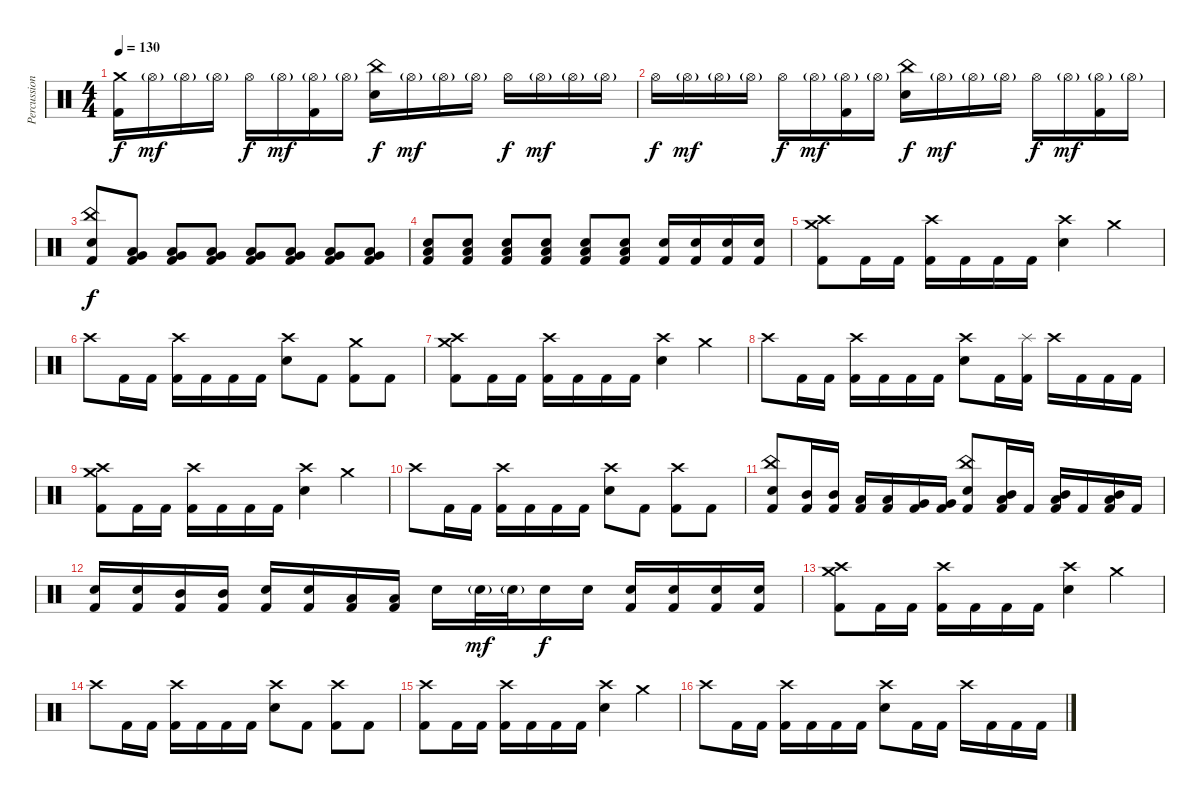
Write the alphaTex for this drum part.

\track ("Percussion" "Percussion") {instrument percussion}
\staff {score}
\articulation defaults
\ts (4 4)
\tempo 130
\clef neutral
\ks c
("Crash medium (hit)" "Kick (hit) 2").16{dy f} "Hi-Hat (open)"{g}.16{dy mf} "Hi-Hat (open)"{g}.16 "Hi-Hat (open)"{g}.16 "Hi-Hat (open)".16{dy f} "Hi-Hat (open)"{g}.16{dy mf} ("Hi-Hat (open)"{g} "Kick (hit) 2").16 "Hi-Hat (open)"{g}.16 ("China (hit)" "Electric Snare (hit)").16{dy f} "Hi-Hat (open)"{g}.16{dy mf} "Hi-Hat (open)"{g}.16 "Hi-Hat (open)"{g}.16 "Hi-Hat (open)".16{dy f} "Hi-Hat (open)"{g}.16{dy mf} "Hi-Hat (open)"{g}.16 "Hi-Hat (open)"{g}.16 |
"Hi-Hat (open)".16{dy f} "Hi-Hat (open)"{g}.16{dy mf} "Hi-Hat (open)"{g}.16 "Hi-Hat (open)"{g}.16 "Hi-Hat (open)".16{dy f} "Hi-Hat (open)"{g}.16{dy mf} ("Hi-Hat (open)"{g} "Kick (hit) 2").16 "Hi-Hat (open)"{g}.16 ("China (hit)" "Electric Snare (hit)").16{dy f} "Hi-Hat (open)"{g}.16{dy mf} "Hi-Hat (open)"{g}.16 "Hi-Hat (open)"{g}.16 "Hi-Hat (open)".16{dy f} "Hi-Hat (open)"{g}.16{dy mf} ("Hi-Hat (open)"{g} "Kick (hit) 2").16 "Hi-Hat (open)"{g}.16 |
("China (hit)" "Electric Snare (hit)" "Kick (hit) 2").8{dy f} ("Very Low Tom (hit)" "Low Floor Tom (hit)" "Kick (hit) 2").8 ("Very Low Tom (hit)" "Low Floor Tom (hit)" "Kick (hit) 2").8 ("Very Low Tom (hit)" "Low Floor Tom (hit)" "Kick (hit) 2").8 ("Very Low Tom (hit)" "Low Floor Tom (hit)" "Kick (hit) 2").8 ("Very Low Tom (hit)" "Low Floor Tom (hit)" "Kick (hit) 2").8 ("Very Low Tom (hit)" "Low Floor Tom (hit)" "Kick (hit) 2").8 ("Very Low Tom (hit)" "Low Floor Tom (hit)" "Kick (hit) 2").8 |
("Electric Snare (hit)" "Low Floor Tom (hit)" "Kick (hit) 2").8 ("Electric Snare (hit)" "Low Floor Tom (hit)" "Kick (hit) 2").8 ("Electric Snare (hit)" "Low Floor Tom (hit)" "Kick (hit) 2").8 ("Electric Snare (hit)" "Low Floor Tom (hit)" "Kick (hit) 2").8 ("Electric Snare (hit)" "Low Floor Tom (hit)" "Kick (hit) 2").8 ("Electric Snare (hit)" "Low Floor Tom (hit)" "Kick (hit) 2").8 ("Electric Snare (hit)" "Kick (hit) 2").16 ("Electric Snare (hit)" "Kick (hit) 2").16 ("Electric Snare (hit)" "Kick (hit) 2").16 ("Electric Snare (hit)" "Kick (hit) 2").16 |
("Crash medium (hit)" "Crash high (hit)" "Kick (hit) 2").8 "Kick (hit) 2".16 "Kick (hit) 2".16 ("Crash high (hit)" "Kick (hit) 2").16 "Kick (hit) 2".16 "Kick (hit) 2".16 "Kick (hit) 2".16 ("Crash high (hit)" "Electric Snare (hit)").4 "Crash medium (hit)".4 |
"Crash high (hit)".8 "Kick (hit) 2".16 "Kick (hit) 2".16 ("Crash high (hit)" "Kick (hit) 2").16 "Kick (hit) 2".16 "Kick (hit) 2".16 "Kick (hit) 2".16 ("Crash high (hit)" "Electric Snare (hit)").8 "Kick (hit) 2".8 ("Crash medium (hit)" "Kick (hit) 2").8 "Kick (hit) 2".8 |
("Crash medium (hit)" "Crash high (hit)" "Kick (hit) 2").8 "Kick (hit) 2".16 "Kick (hit) 2".16 ("Crash high (hit)" "Kick (hit) 2").16 "Kick (hit) 2".16 "Kick (hit) 2".16 "Kick (hit) 2".16 ("Crash high (hit)" "Electric Snare (hit)").4 "Crash medium (hit)".4 |
"Crash high (hit)".8 "Kick (hit) 2".16 "Kick (hit) 2".16 ("Crash high (hit)" "Kick (hit) 2").16 "Kick (hit) 2".16 "Kick (hit) 2".16 "Kick (hit) 2".16 ("Crash high (hit)" "Electric Snare (hit)").8 "Kick (hit) 2".16 ("Splash (hit)" "Kick (hit) 2").16 "Crash high (hit)".16 "Kick (hit) 2".16 "Kick (hit) 2".16 "Kick (hit) 2".16 |
("Crash medium (hit)" "Crash high (hit)" "Kick (hit) 2").8 "Kick (hit) 2".16 "Kick (hit) 2".16 ("Crash high (hit)" "Kick (hit) 2").16 "Kick (hit) 2".16 "Kick (hit) 2".16 "Kick (hit) 2".16 ("Crash high (hit)" "Electric Snare (hit)").4 "Crash medium (hit)".4 |
"Crash high (hit)".8 "Kick (hit) 2".16 "Kick (hit) 2".16 ("Crash high (hit)" "Kick (hit) 2").16 "Kick (hit) 2".16 "Kick (hit) 2".16 "Kick (hit) 2".16 ("Crash high (hit)" "Electric Snare (hit)").8 "Kick (hit) 2".8 ("Crash high (hit)" "Kick (hit) 2").8 "Kick (hit) 2".8 |
("China (hit)" "Electric Snare (hit)" "Kick (hit) 2").8 ("Mid Tom (hit)" "Kick (hit) 2").16 ("Mid Tom (hit)" "Kick (hit) 2").16 ("Low Tom (hit)" "Kick (hit) 2").16 ("Low Tom (hit)" "Kick (hit) 2").16 ("Very Low Tom (hit)" "Kick (hit) 2").16 ("Very Low Tom (hit)" "Kick (hit) 2").16 ("China (hit)" "Electric Snare (hit)" "Kick (hit) 2").8 ("Mid Tom (hit)" "Low Tom (hit)" "Kick (hit) 2").16 "Kick (hit) 2".16 ("Mid Tom (hit)" "Low Tom (hit)" "Kick (hit) 2").16 "Kick (hit) 2".16 ("Mid Tom (hit)" "Low Tom (hit)" "Kick (hit) 2").16 "Kick (hit) 2".16 |
("Electric Snare (hit)" "Kick (hit) 2").16 ("Electric Snare (hit)" "Kick (hit) 2").16 ("Mid Tom (hit)" "Kick (hit) 2").16 ("Mid Tom (hit)" "Kick (hit) 2").16 ("Electric Snare (hit)" "Kick (hit) 2").16 ("Electric Snare (hit)" "Kick (hit) 2").16 ("Low Tom (hit)" "Kick (hit) 2").16 ("Low Tom (hit)" "Kick (hit) 2").16 "Electric Snare (hit)".16 "Electric Snare (hit)"{g}.32{dy mf} "Electric Snare (hit)"{g}.32 "Electric Snare (hit)".16{dy f} "Electric Snare (hit)".16 ("Electric Snare (hit)" "Kick (hit) 2").16 ("Electric Snare (hit)" "Kick (hit) 2").16 ("Electric Snare (hit)" "Kick (hit) 2").16 ("Electric Snare (hit)" "Kick (hit) 2").16 |
("Crash medium (hit)" "Crash high (hit)" "Kick (hit) 2").8 "Kick (hit) 2".16 "Kick (hit) 2".16 ("Crash high (hit)" "Kick (hit) 2").16 "Kick (hit) 2".16 "Kick (hit) 2".16 "Kick (hit) 2".16 ("Crash high (hit)" "Electric Snare (hit)").4 "Crash medium (hit)".4 |
"Crash high (hit)".8 "Kick (hit) 2".16 "Kick (hit) 2".16 ("Crash high (hit)" "Kick (hit) 2").16 "Kick (hit) 2".16 "Kick (hit) 2".16 "Kick (hit) 2".16 ("Crash high (hit)" "Electric Snare (hit)").8 "Kick (hit) 2".8 ("Crash high (hit)" "Kick (hit) 2").8 "Kick (hit) 2".8 |
("Crash high (hit)" "Kick (hit) 2").8 "Kick (hit) 2".16 "Kick (hit) 2".16 ("Crash high (hit)" "Kick (hit) 2").16 "Kick (hit) 2".16 "Kick (hit) 2".16 "Kick (hit) 2".16 ("Crash high (hit)" "Electric Snare (hit)").4 "Crash medium (hit)".4 |
"Crash high (hit)".8 "Kick (hit) 2".16 "Kick (hit) 2".16 ("Crash high (hit)" "Kick (hit) 2").16 "Kick (hit) 2".16 "Kick (hit) 2".16 "Kick (hit) 2".16 ("Crash high (hit)" "Electric Snare (hit)").8 "Kick (hit) 2".16 "Kick (hit) 2".16 "Crash high (hit)".16 "Kick (hit) 2".16 "Kick (hit) 2".16 "Kick (hit) 2".16
